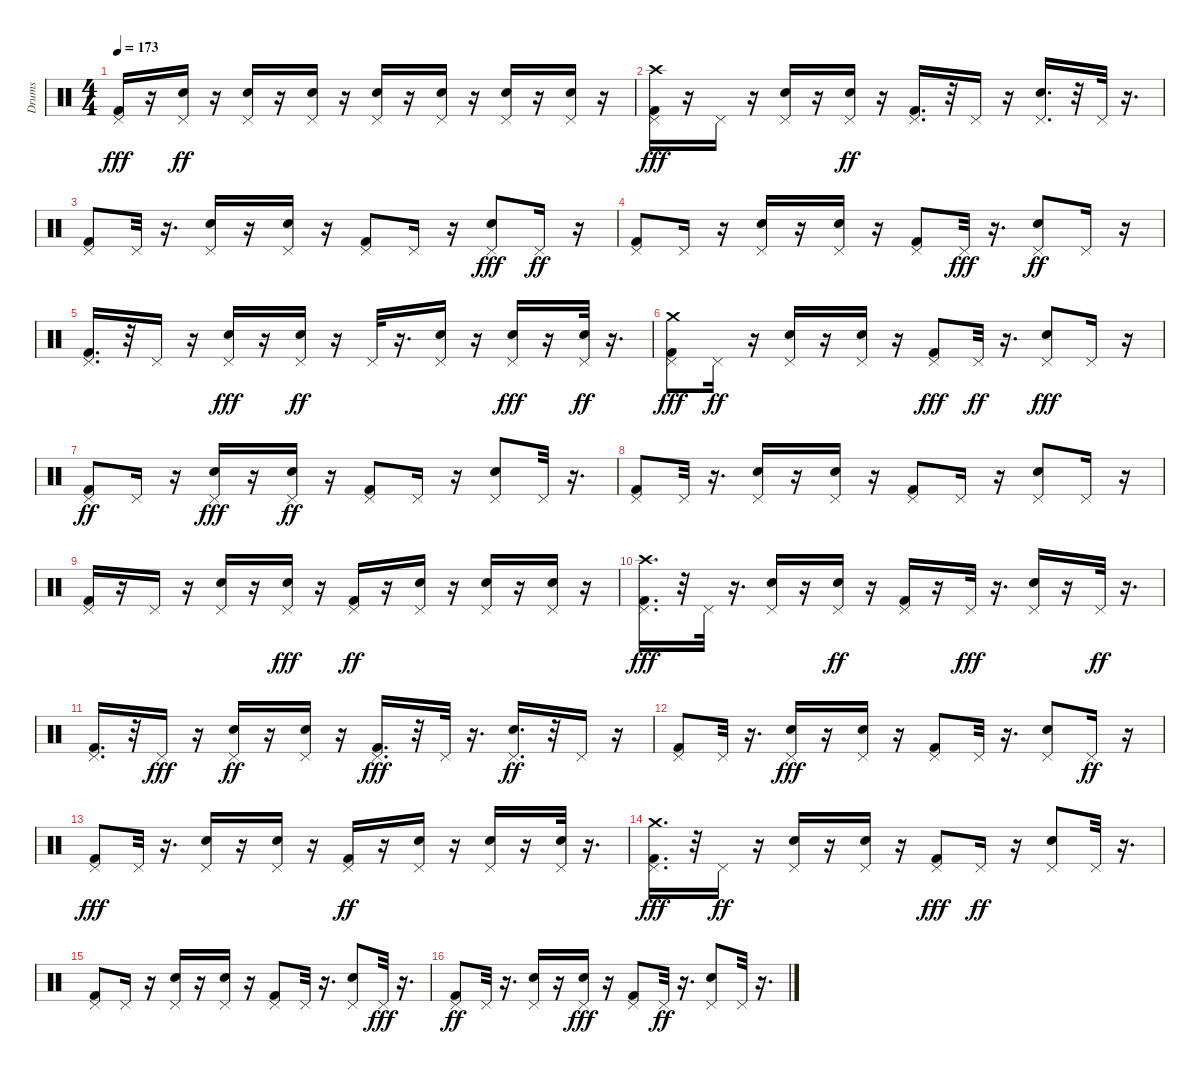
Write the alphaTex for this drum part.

\track ("Drums" "Drums") {instrument percussion}
\staff {score}
\articulation defaults
\ts (4 4)
\tempo 173
\clef neutral
\ks c
("Kick (hit) 2" "Pedal Hi-Hat (hit)").16{dy fff} r.16 ("Snare (hit) 2" "Pedal Hi-Hat (hit)").16{dy ff} r.16 ("Snare (hit) 2" "Pedal Hi-Hat (hit)").16 r.16 ("Snare (hit) 2" "Pedal Hi-Hat (hit)").16 r.16 ("Snare (hit) 2" "Pedal Hi-Hat (hit)").16 r.16 ("Snare (hit) 2" "Pedal Hi-Hat (hit)").16 r.16 ("Snare (hit) 2" "Pedal Hi-Hat (hit)").16 r.16 ("Snare (hit) 2" "Pedal Hi-Hat (hit)").16 r.16 |
("Kick (hit) 2" "Pedal Hi-Hat (hit)" "Crash high (hit)").16{dy fff} r.16 "Pedal Hi-Hat (hit)".16 r.16 ("Snare (hit) 2" "Pedal Hi-Hat (hit)").16 r.16 ("Snare (hit) 2" "Pedal Hi-Hat (hit)").16{dy ff} r.16 ("Kick (hit) 2" "Pedal Hi-Hat (hit)").16{d} r.32 "Pedal Hi-Hat (hit)".16 r.16 ("Snare (hit) 2" "Pedal Hi-Hat (hit)").16{d} r.32 "Pedal Hi-Hat (hit)".32 r.16{d} |
("Kick (hit) 2" "Pedal Hi-Hat (hit)").8 "Pedal Hi-Hat (hit)".32 r.16{d} ("Snare (hit) 2" "Pedal Hi-Hat (hit)").16 r.16 ("Snare (hit) 2" "Pedal Hi-Hat (hit)").16 r.16 ("Kick (hit) 2" "Pedal Hi-Hat (hit)").8 "Pedal Hi-Hat (hit)".16 r.16 ("Snare (hit) 2" "Pedal Hi-Hat (hit)").8{dy fff} "Pedal Hi-Hat (hit)".16{dy ff} r.16 |
("Kick (hit) 2" "Pedal Hi-Hat (hit)").8 "Pedal Hi-Hat (hit)".16 r.16 ("Snare (hit) 2" "Pedal Hi-Hat (hit)").16 r.16 ("Snare (hit) 2" "Pedal Hi-Hat (hit)").16 r.16 ("Kick (hit) 2" "Pedal Hi-Hat (hit)").8 "Pedal Hi-Hat (hit)".32{dy fff} r.16{d} ("Snare (hit) 2" "Pedal Hi-Hat (hit)").8{dy ff} "Pedal Hi-Hat (hit)".16 r.16 |
("Kick (hit) 2" "Pedal Hi-Hat (hit)").16{d} r.32 "Pedal Hi-Hat (hit)".16 r.16 ("Snare (hit) 2" "Pedal Hi-Hat (hit)").16{dy fff} r.16 ("Snare (hit) 2" "Pedal Hi-Hat (hit)").16{dy ff} r.16 "Pedal Hi-Hat (hit)".32 r.16{d} ("Snare (hit) 2" "Pedal Hi-Hat (hit)").16 r.16 ("Snare (hit) 2" "Pedal Hi-Hat (hit)").16{dy fff} r.16 ("Snare (hit) 2" "Pedal Hi-Hat (hit)").32{dy ff} r.16{d} |
("Kick (hit) 2" "Pedal Hi-Hat (hit)" "Crash medium (hit)").8{dy fff} "Pedal Hi-Hat (hit)".16{dy ff} r.16 ("Snare (hit) 2" "Pedal Hi-Hat (hit)").16 r.16 ("Snare (hit) 2" "Pedal Hi-Hat (hit)").16 r.16 ("Kick (hit) 2" "Pedal Hi-Hat (hit)").8{dy fff} "Pedal Hi-Hat (hit)".32{dy ff} r.16{d} ("Snare (hit) 2" "Pedal Hi-Hat (hit)").8{dy fff} "Pedal Hi-Hat (hit)".16 r.16 |
("Kick (hit) 2" "Pedal Hi-Hat (hit)").8{dy ff} "Pedal Hi-Hat (hit)".16 r.16 ("Snare (hit) 2" "Pedal Hi-Hat (hit)").16{dy fff} r.16 ("Snare (hit) 2" "Pedal Hi-Hat (hit)").16{dy ff} r.16 ("Kick (hit) 2" "Pedal Hi-Hat (hit)").8 "Pedal Hi-Hat (hit)".16 r.16 ("Snare (hit) 2" "Pedal Hi-Hat (hit)").8 "Pedal Hi-Hat (hit)".32 r.16{d} |
("Kick (hit) 2" "Pedal Hi-Hat (hit)").8 "Pedal Hi-Hat (hit)".32 r.16{d} ("Snare (hit) 2" "Pedal Hi-Hat (hit)").16 r.16 ("Snare (hit) 2" "Pedal Hi-Hat (hit)").16 r.16 ("Kick (hit) 2" "Pedal Hi-Hat (hit)").8 "Pedal Hi-Hat (hit)".16 r.16 ("Snare (hit) 2" "Pedal Hi-Hat (hit)").8 "Pedal Hi-Hat (hit)".16 r.16 |
("Kick (hit) 2" "Pedal Hi-Hat (hit)").16 r.16 "Pedal Hi-Hat (hit)".16 r.16 ("Snare (hit) 2" "Pedal Hi-Hat (hit)").16 r.16 ("Snare (hit) 2" "Pedal Hi-Hat (hit)").16{dy fff} r.16 ("Kick (hit) 2" "Pedal Hi-Hat (hit)").16{dy ff} r.16 ("Snare (hit) 2" "Pedal Hi-Hat (hit)").16 r.16 ("Snare (hit) 2" "Pedal Hi-Hat (hit)").16 r.16 ("Snare (hit) 2" "Pedal Hi-Hat (hit)").16 r.16 |
("Kick (hit) 2" "Pedal Hi-Hat (hit)" "Crash high (hit)").16{d dy fff} r.32 "Pedal Hi-Hat (hit)".32 r.16{d} ("Snare (hit) 2" "Pedal Hi-Hat (hit)").16 r.16 ("Snare (hit) 2" "Pedal Hi-Hat (hit)").16{dy ff} r.16 ("Kick (hit) 2" "Pedal Hi-Hat (hit)").16 r.16 "Pedal Hi-Hat (hit)".32{dy fff} r.16{d} ("Snare (hit) 2" "Pedal Hi-Hat (hit)").16 r.16 "Pedal Hi-Hat (hit)".32{dy ff} r.16{d} |
("Kick (hit) 2" "Pedal Hi-Hat (hit)").16{d} r.32 "Pedal Hi-Hat (hit)".16{dy fff} r.16 ("Snare (hit) 2" "Pedal Hi-Hat (hit)").16{dy ff} r.16 ("Snare (hit) 2" "Pedal Hi-Hat (hit)").16 r.16 ("Kick (hit) 2" "Pedal Hi-Hat (hit)").16{d dy fff} r.32 "Pedal Hi-Hat (hit)".32 r.16{d} ("Snare (hit) 2" "Pedal Hi-Hat (hit)").16{d dy ff} r.32 "Pedal Hi-Hat (hit)".16 r.16 |
("Kick (hit) 2" "Pedal Hi-Hat (hit)").8 "Pedal Hi-Hat (hit)".32 r.16{d} ("Snare (hit) 2" "Pedal Hi-Hat (hit)").16{dy fff} r.16 ("Snare (hit) 2" "Pedal Hi-Hat (hit)").16 r.16 ("Kick (hit) 2" "Pedal Hi-Hat (hit)").8 "Pedal Hi-Hat (hit)".32 r.16{d} ("Snare (hit) 2" "Pedal Hi-Hat (hit)").8 "Pedal Hi-Hat (hit)".16{dy ff} r.16 |
("Kick (hit) 2" "Pedal Hi-Hat (hit)").8{dy fff} "Pedal Hi-Hat (hit)".32 r.16{d} ("Snare (hit) 2" "Pedal Hi-Hat (hit)").16 r.16 ("Snare (hit) 2" "Pedal Hi-Hat (hit)").16 r.16 ("Kick (hit) 2" "Pedal Hi-Hat (hit)").16{dy ff} r.16 ("Snare (hit) 2" "Pedal Hi-Hat (hit)").16 r.16 ("Snare (hit) 2" "Pedal Hi-Hat (hit)").16 r.16 ("Snare (hit) 2" "Pedal Hi-Hat (hit)").32 r.16{d} |
("Kick (hit) 2" "Pedal Hi-Hat (hit)" "Crash medium (hit)").16{d dy fff} r.32 "Pedal Hi-Hat (hit)".16{dy ff} r.16 ("Snare (hit) 2" "Pedal Hi-Hat (hit)").16 r.16 ("Snare (hit) 2" "Pedal Hi-Hat (hit)").16 r.16 ("Kick (hit) 2" "Pedal Hi-Hat (hit)").8{dy fff} "Pedal Hi-Hat (hit)".16{dy ff} r.16 ("Snare (hit) 2" "Pedal Hi-Hat (hit)").8 "Pedal Hi-Hat (hit)".32 r.16{d} |
("Kick (hit) 2" "Pedal Hi-Hat (hit)").8 "Pedal Hi-Hat (hit)".16 r.16 ("Snare (hit) 2" "Pedal Hi-Hat (hit)").16 r.16 ("Snare (hit) 2" "Pedal Hi-Hat (hit)").16 r.16 ("Kick (hit) 2" "Pedal Hi-Hat (hit)").8 "Pedal Hi-Hat (hit)".32 r.16{d} ("Snare (hit) 2" "Pedal Hi-Hat (hit)").8 "Pedal Hi-Hat (hit)".32{dy fff} r.16{d} |
("Kick (hit) 2" "Pedal Hi-Hat (hit)").8{dy ff} "Pedal Hi-Hat (hit)".32 r.16{d} ("Snare (hit) 2" "Pedal Hi-Hat (hit)").16 r.16 ("Snare (hit) 2" "Pedal Hi-Hat (hit)").16{dy fff} r.16 ("Kick (hit) 2" "Pedal Hi-Hat (hit)").8 "Pedal Hi-Hat (hit)".32{dy ff} r.16{d} ("Snare (hit) 2" "Pedal Hi-Hat (hit)").8 "Pedal Hi-Hat (hit)".32 r.16{d}
